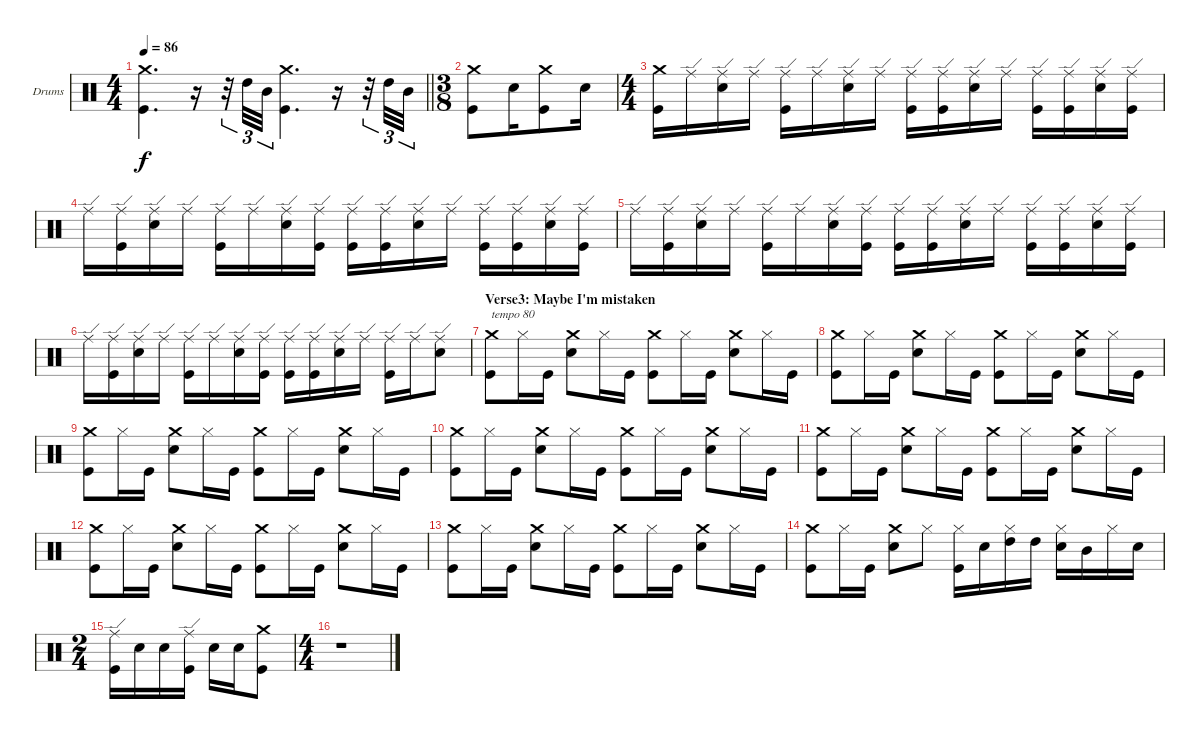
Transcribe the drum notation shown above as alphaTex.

\bracketExtendMode groupsimilarinstruments
\firstSystemTrackNameOrientation horizontal
\otherSystemsTrackNameOrientation horizontal
\track ("Drumkit" "Drums") {instrument percussion}
\staff {score}
\articulation defaults
\ts (4 4)
\tempo 86
\clef neutral
\barLineRight lightlight
\ks c
("Crash medium (hit)" "Kick (hit)").4{d dy f} r.16 r.32{tu (3 2)} "High Tom (hit)".32{tu (3 2)} "Mid Tom (hit)".32{tu (3 2)} ("Crash medium (hit)" "Kick (hit)").4{d} r.16 r.32{tu (3 2)} "High Tom (hit)".32{tu (3 2)} "Mid Tom (hit)".32{tu (3 2)} |
\ts (3 8)
("Crash medium (hit)" "Kick (hit)").8 "Snare (hit) 2".16 ("Crash medium (hit)" "Kick (hit)").8 "Snare (hit) 2".16 |
\ts (4 4)
("Crash medium (hit)" "Kick (hit)").16 "Ride (edge)".16 ("Ride (edge)" "Snare (hit) 2").16 "Ride (edge)".16 ("Ride (edge)" "Kick (hit)").16 "Ride (edge)".16 ("Ride (edge)" "Snare (hit) 2").16 "Ride (edge)".16 ("Ride (edge)" "Kick (hit)").16 ("Ride (edge)" "Kick (hit)").16 ("Ride (edge)" "Snare (hit) 2").16 "Ride (edge)".16 ("Ride (edge)" "Kick (hit)").16 ("Ride (edge)" "Kick (hit)").16 ("Ride (edge)" "Snare (hit) 2").16 ("Ride (edge)" "Kick (hit)").16 |
"Ride (edge)".16 ("Ride (edge)" "Kick (hit)").16 ("Ride (edge)" "Snare (hit) 2").16 "Ride (edge)".16 ("Ride (edge)" "Kick (hit)").16 "Ride (edge)".16 ("Ride (edge)" "Snare (hit) 2").16 ("Ride (edge)" "Kick (hit)").16 ("Ride (edge)" "Kick (hit)").16 ("Ride (edge)" "Kick (hit)").16 ("Ride (edge)" "Snare (hit) 2").16 "Ride (edge)".16 ("Ride (edge)" "Kick (hit)").16 ("Ride (edge)" "Kick (hit)").16 ("Ride (edge)" "Snare (hit) 2").16 ("Ride (edge)" "Kick (hit)").16 |
"Ride (edge)".16 ("Ride (edge)" "Kick (hit)").16 ("Ride (edge)" "Snare (hit) 2").16 "Ride (edge)".16 ("Ride (edge)" "Kick (hit)").16 "Ride (edge)".16 ("Ride (edge)" "Snare (hit) 2").16 ("Ride (edge)" "Kick (hit)").16 ("Ride (edge)" "Kick (hit)").16 ("Ride (edge)" "Kick (hit)").16 ("Ride (edge)" "Snare (hit) 2").16 "Ride (edge)".16 ("Ride (edge)" "Kick (hit)").16 ("Ride (edge)" "Kick (hit)").16 ("Ride (edge)" "Snare (hit) 2").16 ("Ride (edge)" "Kick (hit)").16 |
"Ride (edge)".16 ("Ride (edge)" "Kick (hit)").16 ("Ride (edge)" "Snare (hit) 2").16 "Ride (edge)".16 ("Ride (edge)" "Kick (hit)").16 "Ride (edge)".16 ("Ride (edge)" "Snare (hit) 2").16 ("Ride (edge)" "Kick (hit)").16 ("Ride (edge)" "Kick (hit)").16 ("Ride (edge)" "Kick (hit)").16 ("Ride (edge)" "Snare (hit) 2").16 "Ride (edge)".16 ("Ride (edge)" "Kick (hit)").16 "Ride (edge)".16 ("Ride (edge)" "Snare (hit) 2").8 |
\section ("" "Verse3: Maybe I'm mistaken")
("Crash medium (hit)" "Kick (hit)").8{txt "tempo 80"} "Hi-Hat (closed)".16 "Kick (hit)".16 ("Crash medium (hit)" "Snare (hit) 2").8 "Hi-Hat (closed)".16 "Kick (hit)".16 ("Crash medium (hit)" "Kick (hit)").8 "Hi-Hat (closed)".16 "Kick (hit)".16 ("Crash medium (hit)" "Snare (hit) 2").8 "Hi-Hat (closed)".16 "Kick (hit)".16 |
("Crash medium (hit)" "Kick (hit)").8 "Hi-Hat (closed)".16 "Kick (hit)".16 ("Crash medium (hit)" "Snare (hit) 2").8 "Hi-Hat (closed)".16 "Kick (hit)".16 ("Crash medium (hit)" "Kick (hit)").8 "Hi-Hat (closed)".16 "Kick (hit)".16 ("Crash medium (hit)" "Snare (hit) 2").8 "Hi-Hat (closed)".16 "Kick (hit)".16 |
("Crash medium (hit)" "Kick (hit)").8 "Hi-Hat (closed)".16 "Kick (hit)".16 ("Crash medium (hit)" "Snare (hit) 2").8 "Hi-Hat (closed)".16 "Kick (hit)".16 ("Crash medium (hit)" "Kick (hit)").8 "Hi-Hat (closed)".16 "Kick (hit)".16 ("Crash medium (hit)" "Snare (hit) 2").8 "Hi-Hat (closed)".16 "Kick (hit)".16 |
("Crash medium (hit)" "Kick (hit)").8 "Hi-Hat (closed)".16 "Kick (hit)".16 ("Crash medium (hit)" "Snare (hit) 2").8 "Hi-Hat (closed)".16 "Kick (hit)".16 ("Crash medium (hit)" "Kick (hit)").8 "Hi-Hat (closed)".16 "Kick (hit)".16 ("Crash medium (hit)" "Snare (hit) 2").8 "Hi-Hat (closed)".16 "Kick (hit)".16 |
("Crash medium (hit)" "Kick (hit)").8 "Hi-Hat (closed)".16 "Kick (hit)".16 ("Crash medium (hit)" "Snare (hit) 2").8 "Hi-Hat (closed)".16 "Kick (hit)".16 ("Crash medium (hit)" "Kick (hit)").8 "Hi-Hat (closed)".16 "Kick (hit)".16 ("Crash medium (hit)" "Snare (hit) 2").8 "Hi-Hat (closed)".16 "Kick (hit)".16 |
("Crash medium (hit)" "Kick (hit)").8 "Hi-Hat (closed)".16 "Kick (hit)".16 ("Crash medium (hit)" "Snare (hit) 2").8 "Hi-Hat (closed)".16 "Kick (hit)".16 ("Crash medium (hit)" "Kick (hit)").8 "Hi-Hat (closed)".16 "Kick (hit)".16 ("Crash medium (hit)" "Snare (hit) 2").8 "Hi-Hat (closed)".16 "Kick (hit)".16 |
("Crash medium (hit)" "Kick (hit)").8 "Hi-Hat (closed)".16 "Kick (hit)".16 ("Crash medium (hit)" "Snare (hit) 2").8 "Hi-Hat (closed)".16 "Kick (hit)".16 ("Crash medium (hit)" "Kick (hit)").8 "Hi-Hat (closed)".16 "Kick (hit)".16 ("Crash medium (hit)" "Snare (hit) 2").8 "Hi-Hat (closed)".16 "Kick (hit)".16 |
("Crash medium (hit)" "Kick (hit)").8 "Hi-Hat (closed)".16 "Kick (hit)".16 ("Crash medium (hit)" "Snare (hit) 2").8 "Hi-Hat (closed)".8 ("Hi-Hat (closed)" "Kick (hit)").16 "Snare (hit) 2".16 ("Hi-Hat (closed)" "High Tom (hit)").16 "High Tom (hit)".16 ("Hi-Hat (closed)" "Snare (hit) 2").16 "Mid Tom (hit)".16 "Hi-Hat (closed)".16 "Snare (hit) 2".16 |
\ts (2 4)
("Ride (edge)" "Kick (hit)").16 "Snare (hit) 2".16 "Snare (hit) 2".16 ("Ride (edge)" "Kick (hit)").16 "Snare (hit) 2".16 "Snare (hit) 2".16 ("Crash medium (hit)" "Kick (hit)").8 |
\ts (4 4)
r.1
